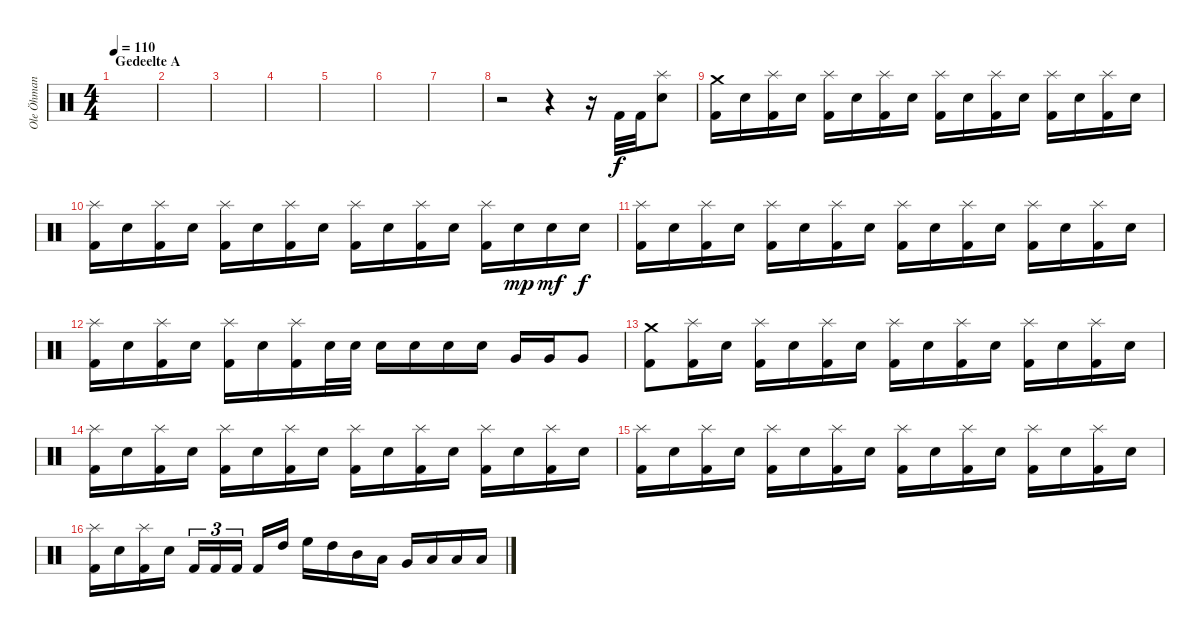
\track ("Ole Öhman" "Ole Öhman") {instrument percussion}
\staff {score}
\articulation defaults
\ts (4 4)
\section ("" "Gedeelte A")
\tempo 110
\clef neutral
\ks c
|
|
|
|
|
|
|
r.2 r.4 r.16 "Kick (hit) 2".32{volume 14} "Kick (hit) 2".32 ("Splash (hit)" "Electric Snare (hit)").8 |
("Crash medium (hit)" "Kick (hit) 2").16 "Electric Snare (hit)".16 ("Splash (hit)" "Kick (hit) 2").16 "Electric Snare (hit)".16 ("Splash (hit)" "Kick (hit) 2").16 "Electric Snare (hit)".16 ("Splash (hit)" "Kick (hit) 2").16 "Electric Snare (hit)".16 ("Splash (hit)" "Kick (hit) 2").16 "Electric Snare (hit)".16 ("Splash (hit)" "Kick (hit) 2").16 "Electric Snare (hit)".16 ("Splash (hit)" "Kick (hit) 2").16 "Electric Snare (hit)".16 ("Splash (hit)" "Kick (hit) 2").16 "Electric Snare (hit)".16 |
("Splash (hit)" "Kick (hit) 2").16 "Electric Snare (hit)".16 ("Splash (hit)" "Kick (hit) 2").16 "Electric Snare (hit)".16 ("Splash (hit)" "Kick (hit) 2").16 "Electric Snare (hit)".16 ("Splash (hit)" "Kick (hit) 2").16 "Electric Snare (hit)".16 ("Splash (hit)" "Kick (hit) 2").16 "Electric Snare (hit)".16 ("Splash (hit)" "Kick (hit) 2").16 "Electric Snare (hit)".16 ("Splash (hit)" "Kick (hit) 2").16 "Electric Snare (hit)".16{dy mp} "Electric Snare (hit)".16{dy mf} "Electric Snare (hit)".16{dy f} |
("Splash (hit)" "Kick (hit) 2").16 "Electric Snare (hit)".16 ("Splash (hit)" "Kick (hit) 2").16 "Electric Snare (hit)".16 ("Splash (hit)" "Kick (hit) 2").16 "Electric Snare (hit)".16 ("Splash (hit)" "Kick (hit) 2").16 "Electric Snare (hit)".16 ("Splash (hit)" "Kick (hit) 2").16 "Electric Snare (hit)".16 ("Splash (hit)" "Kick (hit) 2").16 "Electric Snare (hit)".16 ("Splash (hit)" "Kick (hit) 2").16 "Electric Snare (hit)".16 ("Splash (hit)" "Kick (hit) 2").16 "Electric Snare (hit)".16 |
("Splash (hit)" "Kick (hit) 2").16 "Electric Snare (hit)".16 ("Splash (hit)" "Kick (hit) 2").16 "Electric Snare (hit)".16 ("Splash (hit)" "Kick (hit) 2").16 "Electric Snare (hit)".16 ("Splash (hit)" "Kick (hit) 2").16 "Electric Snare (hit)".32 "Electric Snare (hit)".32 "Electric Snare (hit)".16 "Electric Snare (hit)".16 "Electric Snare (hit)".16 "Electric Snare (hit)".16 "Very Low Tom (hit)".16 "Very Low Tom (hit)".16 "Very Low Tom (hit)".8 |
("Crash medium (hit)" "Kick (hit) 2").8 ("Splash (hit)" "Kick (hit) 2").16 "Electric Snare (hit)".16 ("Splash (hit)" "Kick (hit) 2").16 "Electric Snare (hit)".16 ("Splash (hit)" "Kick (hit) 2").16 "Electric Snare (hit)".16 ("Splash (hit)" "Kick (hit) 2").16 "Electric Snare (hit)".16 ("Splash (hit)" "Kick (hit) 2").16 "Electric Snare (hit)".16 ("Splash (hit)" "Kick (hit) 2").16 "Electric Snare (hit)".16 ("Splash (hit)" "Kick (hit) 2").16 "Electric Snare (hit)".16 |
("Splash (hit)" "Kick (hit) 2").16 "Electric Snare (hit)".16 ("Splash (hit)" "Kick (hit) 2").16 "Electric Snare (hit)".16 ("Splash (hit)" "Kick (hit) 2").16 "Electric Snare (hit)".16 ("Splash (hit)" "Kick (hit) 2").16 "Electric Snare (hit)".16 ("Splash (hit)" "Kick (hit) 2").16 "Electric Snare (hit)".16 ("Splash (hit)" "Kick (hit) 2").16 "Electric Snare (hit)".16 ("Splash (hit)" "Kick (hit) 2").16 "Electric Snare (hit)".16 ("Splash (hit)" "Kick (hit) 2").16 "Electric Snare (hit)".16 |
("Splash (hit)" "Kick (hit) 2").16 "Electric Snare (hit)".16 ("Splash (hit)" "Kick (hit) 2").16 "Electric Snare (hit)".16 ("Splash (hit)" "Kick (hit) 2").16 "Electric Snare (hit)".16 ("Splash (hit)" "Kick (hit) 2").16 "Electric Snare (hit)".16 ("Splash (hit)" "Kick (hit) 2").16 "Electric Snare (hit)".16 ("Splash (hit)" "Kick (hit) 2").16 "Electric Snare (hit)".16 ("Splash (hit)" "Kick (hit) 2").16 "Electric Snare (hit)".16 ("Splash (hit)" "Kick (hit) 2").16 "Electric Snare (hit)".16 |
("Splash (hit)" "Kick (hit) 2").16 "Electric Snare (hit)".16 ("Splash (hit)" "Kick (hit) 2").16 "Electric Snare (hit)".16 "Kick (hit) 2".16{tu (3 2)} "Kick (hit) 2".16{tu (3 2)} "Kick (hit) 2".16{tu (3 2) beam splitsecondary} "Kick (hit) 2".16 "High Tom (hit)".16 "High Floor Tom (hit)".16 "High Tom (hit)".16 "Mid Tom (hit)".16 "Low Tom (hit)".16 "Very Low Tom (hit)".16 "Low Floor Tom (hit)".16 "Low Floor Tom (hit)".16 "Low Floor Tom (hit)".16
